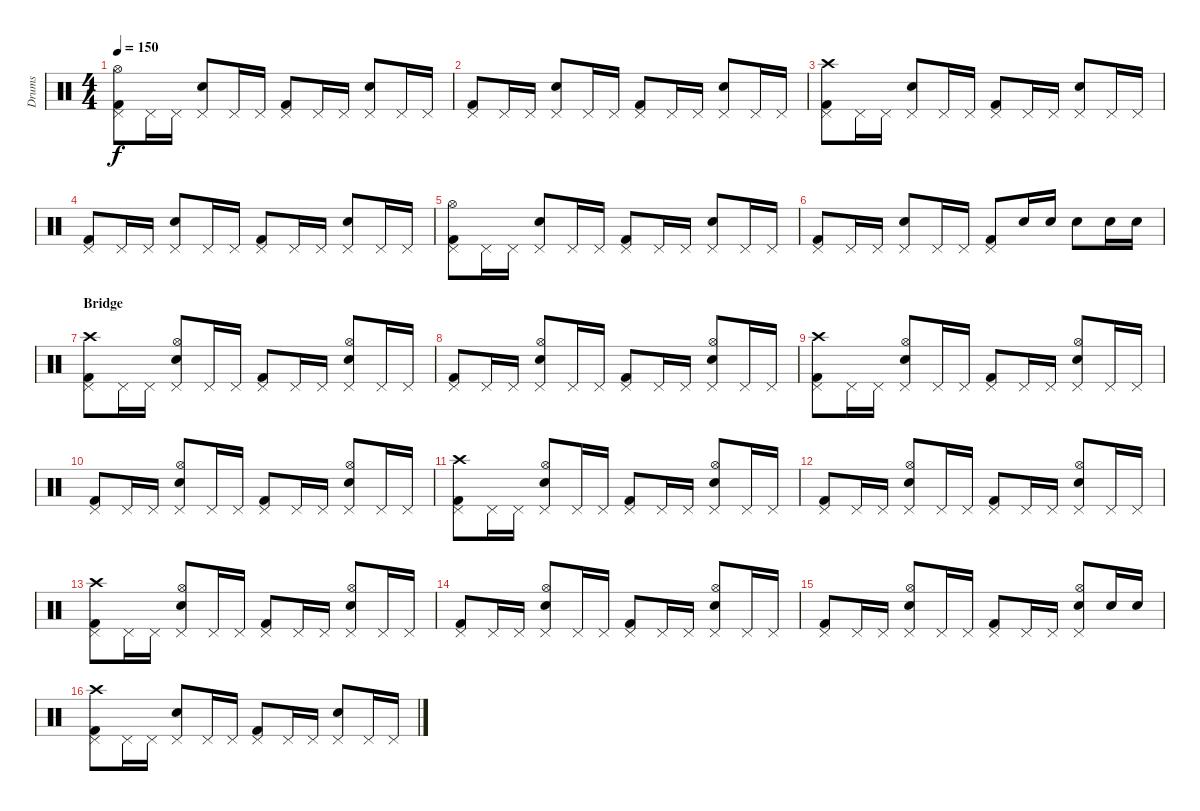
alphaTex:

\track ("Drums" "Drums") {instrument percussion}
\staff {score}
\articulation defaults
\ts (4 4)
\tempo 150
\clef neutral
\ks c
("Kick (hit) 2" "Pedal Hi-Hat (hit)" "Hi-Hat (open)").8{dy f} "Pedal Hi-Hat (hit)".16 "Pedal Hi-Hat (hit)".16 ("Snare (hit) 2" "Pedal Hi-Hat (hit)").8 "Pedal Hi-Hat (hit)".16 "Pedal Hi-Hat (hit)".16 ("Kick (hit) 2" "Pedal Hi-Hat (hit)").8 "Pedal Hi-Hat (hit)".16 "Pedal Hi-Hat (hit)".16 ("Snare (hit) 2" "Pedal Hi-Hat (hit)").8 "Pedal Hi-Hat (hit)".16 "Pedal Hi-Hat (hit)".16 |
("Kick (hit) 2" "Pedal Hi-Hat (hit)").8 "Pedal Hi-Hat (hit)".16 "Pedal Hi-Hat (hit)".16 ("Snare (hit) 2" "Pedal Hi-Hat (hit)").8 "Pedal Hi-Hat (hit)".16 "Pedal Hi-Hat (hit)".16 ("Kick (hit) 2" "Pedal Hi-Hat (hit)").8 "Pedal Hi-Hat (hit)".16 "Pedal Hi-Hat (hit)".16 ("Snare (hit) 2" "Pedal Hi-Hat (hit)").8 "Pedal Hi-Hat (hit)".16 "Pedal Hi-Hat (hit)".16 |
("Kick (hit) 2" "Pedal Hi-Hat (hit)" "Crash high (hit)").8 "Pedal Hi-Hat (hit)".16 "Pedal Hi-Hat (hit)".16 ("Snare (hit) 2" "Pedal Hi-Hat (hit)").8 "Pedal Hi-Hat (hit)".16 "Pedal Hi-Hat (hit)".16 ("Kick (hit) 2" "Pedal Hi-Hat (hit)").8 "Pedal Hi-Hat (hit)".16 "Pedal Hi-Hat (hit)".16 ("Snare (hit) 2" "Pedal Hi-Hat (hit)").8 "Pedal Hi-Hat (hit)".16 "Pedal Hi-Hat (hit)".16 |
("Kick (hit) 2" "Pedal Hi-Hat (hit)").8 "Pedal Hi-Hat (hit)".16 "Pedal Hi-Hat (hit)".16 ("Snare (hit) 2" "Pedal Hi-Hat (hit)").8 "Pedal Hi-Hat (hit)".16 "Pedal Hi-Hat (hit)".16 ("Kick (hit) 2" "Pedal Hi-Hat (hit)").8 "Pedal Hi-Hat (hit)".16 "Pedal Hi-Hat (hit)".16 ("Snare (hit) 2" "Pedal Hi-Hat (hit)").8 "Pedal Hi-Hat (hit)".16 "Pedal Hi-Hat (hit)".16 |
("Kick (hit) 2" "Pedal Hi-Hat (hit)" "Hi-Hat (open)").8 "Pedal Hi-Hat (hit)".16 "Pedal Hi-Hat (hit)".16 ("Snare (hit) 2" "Pedal Hi-Hat (hit)").8 "Pedal Hi-Hat (hit)".16 "Pedal Hi-Hat (hit)".16 ("Kick (hit) 2" "Pedal Hi-Hat (hit)").8 "Pedal Hi-Hat (hit)".16 "Pedal Hi-Hat (hit)".16 ("Snare (hit) 2" "Pedal Hi-Hat (hit)").8 "Pedal Hi-Hat (hit)".16 "Pedal Hi-Hat (hit)".16 |
("Kick (hit) 2" "Pedal Hi-Hat (hit)").8 "Pedal Hi-Hat (hit)".16 "Pedal Hi-Hat (hit)".16 ("Snare (hit) 2" "Pedal Hi-Hat (hit)").8 "Pedal Hi-Hat (hit)".16 "Pedal Hi-Hat (hit)".16 ("Kick (hit) 2" "Pedal Hi-Hat (hit)").8 "Snare (hit) 2".16 "Snare (hit) 2".16 "Snare (hit) 2".8 "Snare (hit) 2".16 "Snare (hit) 2".16 |
\section ("" "Bridge")
("Kick (hit) 2" "Pedal Hi-Hat (hit)" "Crash high (hit)").8 "Pedal Hi-Hat (hit)".16 "Pedal Hi-Hat (hit)".16 ("Snare (hit) 2" "Pedal Hi-Hat (hit)" "Hi-Hat (open)").8 "Pedal Hi-Hat (hit)".16 "Pedal Hi-Hat (hit)".16 ("Kick (hit) 2" "Pedal Hi-Hat (hit)").8 "Pedal Hi-Hat (hit)".16 "Pedal Hi-Hat (hit)".16 ("Snare (hit) 2" "Pedal Hi-Hat (hit)" "Hi-Hat (open)").8 "Pedal Hi-Hat (hit)".16 "Pedal Hi-Hat (hit)".16 |
("Kick (hit) 2" "Pedal Hi-Hat (hit)").8 "Pedal Hi-Hat (hit)".16 "Pedal Hi-Hat (hit)".16 ("Snare (hit) 2" "Pedal Hi-Hat (hit)" "Hi-Hat (open)").8 "Pedal Hi-Hat (hit)".16 "Pedal Hi-Hat (hit)".16 ("Kick (hit) 2" "Pedal Hi-Hat (hit)").8 "Pedal Hi-Hat (hit)".16 "Pedal Hi-Hat (hit)".16 ("Snare (hit) 2" "Pedal Hi-Hat (hit)" "Hi-Hat (open)").8 "Pedal Hi-Hat (hit)".16 "Pedal Hi-Hat (hit)".16 |
("Kick (hit) 2" "Pedal Hi-Hat (hit)" "Crash high (hit)").8 "Pedal Hi-Hat (hit)".16 "Pedal Hi-Hat (hit)".16 ("Snare (hit) 2" "Pedal Hi-Hat (hit)" "Hi-Hat (open)").8 "Pedal Hi-Hat (hit)".16 "Pedal Hi-Hat (hit)".16 ("Kick (hit) 2" "Pedal Hi-Hat (hit)").8 "Pedal Hi-Hat (hit)".16 "Pedal Hi-Hat (hit)".16 ("Snare (hit) 2" "Pedal Hi-Hat (hit)" "Hi-Hat (open)").8 "Pedal Hi-Hat (hit)".16 "Pedal Hi-Hat (hit)".16 |
("Kick (hit) 2" "Pedal Hi-Hat (hit)").8 "Pedal Hi-Hat (hit)".16 "Pedal Hi-Hat (hit)".16 ("Snare (hit) 2" "Pedal Hi-Hat (hit)" "Hi-Hat (open)").8 "Pedal Hi-Hat (hit)".16 "Pedal Hi-Hat (hit)".16 ("Kick (hit) 2" "Pedal Hi-Hat (hit)").8 "Pedal Hi-Hat (hit)".16 "Pedal Hi-Hat (hit)".16 ("Snare (hit) 2" "Pedal Hi-Hat (hit)" "Hi-Hat (open)").8 "Pedal Hi-Hat (hit)".16 "Pedal Hi-Hat (hit)".16 |
("Kick (hit) 2" "Pedal Hi-Hat (hit)" "Crash high (hit)").8 "Pedal Hi-Hat (hit)".16 "Pedal Hi-Hat (hit)".16 ("Snare (hit) 2" "Pedal Hi-Hat (hit)" "Hi-Hat (open)").8 "Pedal Hi-Hat (hit)".16 "Pedal Hi-Hat (hit)".16 ("Kick (hit) 2" "Pedal Hi-Hat (hit)").8 "Pedal Hi-Hat (hit)".16 "Pedal Hi-Hat (hit)".16 ("Snare (hit) 2" "Pedal Hi-Hat (hit)" "Hi-Hat (open)").8 "Pedal Hi-Hat (hit)".16 "Pedal Hi-Hat (hit)".16 |
("Kick (hit) 2" "Pedal Hi-Hat (hit)").8 "Pedal Hi-Hat (hit)".16 "Pedal Hi-Hat (hit)".16 ("Snare (hit) 2" "Pedal Hi-Hat (hit)" "Hi-Hat (open)").8 "Pedal Hi-Hat (hit)".16 "Pedal Hi-Hat (hit)".16 ("Kick (hit) 2" "Pedal Hi-Hat (hit)").8 "Pedal Hi-Hat (hit)".16 "Pedal Hi-Hat (hit)".16 ("Snare (hit) 2" "Pedal Hi-Hat (hit)" "Hi-Hat (open)").8 "Pedal Hi-Hat (hit)".16 "Pedal Hi-Hat (hit)".16 |
("Kick (hit) 2" "Pedal Hi-Hat (hit)" "Crash high (hit)").8 "Pedal Hi-Hat (hit)".16 "Pedal Hi-Hat (hit)".16 ("Snare (hit) 2" "Pedal Hi-Hat (hit)" "Hi-Hat (open)").8 "Pedal Hi-Hat (hit)".16 "Pedal Hi-Hat (hit)".16 ("Kick (hit) 2" "Pedal Hi-Hat (hit)").8 "Pedal Hi-Hat (hit)".16 "Pedal Hi-Hat (hit)".16 ("Snare (hit) 2" "Pedal Hi-Hat (hit)" "Hi-Hat (open)").8 "Pedal Hi-Hat (hit)".16 "Pedal Hi-Hat (hit)".16 |
("Kick (hit) 2" "Pedal Hi-Hat (hit)").8 "Pedal Hi-Hat (hit)".16 "Pedal Hi-Hat (hit)".16 ("Snare (hit) 2" "Pedal Hi-Hat (hit)" "Hi-Hat (open)").8 "Pedal Hi-Hat (hit)".16 "Pedal Hi-Hat (hit)".16 ("Kick (hit) 2" "Pedal Hi-Hat (hit)").8 "Pedal Hi-Hat (hit)".16 "Pedal Hi-Hat (hit)".16 ("Snare (hit) 2" "Pedal Hi-Hat (hit)" "Hi-Hat (open)").8 "Pedal Hi-Hat (hit)".16 "Pedal Hi-Hat (hit)".16 |
("Kick (hit) 2" "Pedal Hi-Hat (hit)").8 "Pedal Hi-Hat (hit)".16 "Pedal Hi-Hat (hit)".16 ("Snare (hit) 2" "Pedal Hi-Hat (hit)" "Hi-Hat (open)").8 "Pedal Hi-Hat (hit)".16 "Pedal Hi-Hat (hit)".16 ("Kick (hit) 2" "Pedal Hi-Hat (hit)").8 "Pedal Hi-Hat (hit)".16 "Pedal Hi-Hat (hit)".16 ("Snare (hit) 2" "Pedal Hi-Hat (hit)" "Hi-Hat (open)").8 "Snare (hit) 2".16 "Snare (hit) 2".16 |
("Kick (hit) 2" "Pedal Hi-Hat (hit)" "Crash high (hit)").8 "Pedal Hi-Hat (hit)".16 "Pedal Hi-Hat (hit)".16 ("Snare (hit) 2" "Pedal Hi-Hat (hit)").8 "Pedal Hi-Hat (hit)".16 "Pedal Hi-Hat (hit)".16 ("Kick (hit) 2" "Pedal Hi-Hat (hit)").8 "Pedal Hi-Hat (hit)".16 "Pedal Hi-Hat (hit)".16 ("Snare (hit) 2" "Pedal Hi-Hat (hit)").8 "Pedal Hi-Hat (hit)".16 "Pedal Hi-Hat (hit)".16
